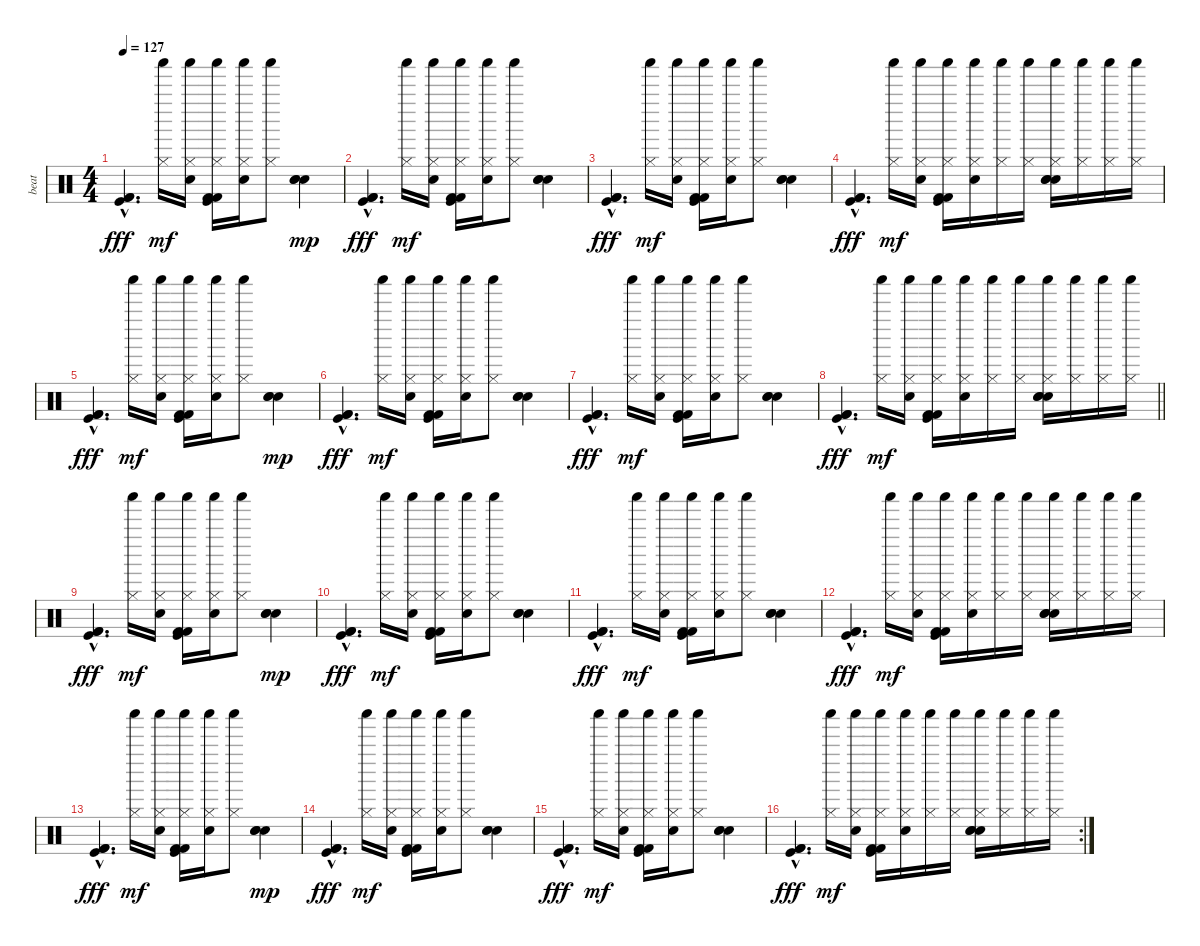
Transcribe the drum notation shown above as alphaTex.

\track ("beat" "beat") {instrument percussion}
\staff {score}
\articulation defaults
\ts (4 4)
\tempo 127
\clef neutral
\ks c
("Kick (hit)"{hac} "Kick (hit) 2"{hac} "Kick (hit) 2"{hac}).4{d dy fff} ("Shaker (hit)" "Hi-Hat (closed)").16{dy mf} ("Electric Snare (hit)" "Shaker (hit)" "Hi-Hat (closed)").16 ("Kick (hit)" "Kick (hit) 2" "Kick (hit) 2" "Shaker (hit)" "Hi-Hat (closed)").16 ("Electric Snare (hit)" "Shaker (hit)" "Hi-Hat (closed)").16 ("Shaker (hit)" "Hi-Hat (closed)").8 ("Snare (hit) 2" "Electric Snare (hit)" "Electric Snare (hit)").4{dy mp} |
("Kick (hit)"{hac} "Kick (hit) 2"{hac} "Kick (hit) 2"{hac}).4{d dy fff} ("Shaker (hit)" "Hi-Hat (closed)").16{dy mf} ("Electric Snare (hit)" "Shaker (hit)" "Hi-Hat (closed)").16 ("Kick (hit)" "Kick (hit) 2" "Kick (hit) 2" "Shaker (hit)" "Hi-Hat (closed)").16 ("Electric Snare (hit)" "Shaker (hit)" "Hi-Hat (closed)").16 ("Shaker (hit)" "Hi-Hat (closed)").8 ("Snare (hit) 2" "Electric Snare (hit)" "Electric Snare (hit)").4 |
("Kick (hit)"{hac} "Kick (hit) 2"{hac} "Kick (hit) 2"{hac}).4{d dy fff} ("Shaker (hit)" "Hi-Hat (closed)").16{dy mf} ("Electric Snare (hit)" "Shaker (hit)" "Hi-Hat (closed)").16 ("Kick (hit)" "Kick (hit) 2" "Kick (hit) 2" "Shaker (hit)" "Hi-Hat (closed)").16 ("Electric Snare (hit)" "Shaker (hit)" "Hi-Hat (closed)").16 ("Shaker (hit)" "Hi-Hat (closed)").8 ("Snare (hit) 2" "Electric Snare (hit)" "Electric Snare (hit)").4 |
("Kick (hit)"{hac} "Kick (hit) 2"{hac} "Kick (hit) 2"{hac}).4{d dy fff} ("Shaker (hit)" "Hi-Hat (closed)").16{dy mf} ("Electric Snare (hit)" "Shaker (hit)" "Hi-Hat (closed)").16 ("Kick (hit)" "Kick (hit) 2" "Kick (hit) 2" "Shaker (hit)" "Hi-Hat (closed)").16 ("Electric Snare (hit)" "Shaker (hit)" "Hi-Hat (closed)").16 ("Shaker (hit)" "Hi-Hat (closed)").16 ("Shaker (hit)" "Hi-Hat (closed)").16 ("Snare (hit) 2" "Electric Snare (hit)" "Electric Snare (hit)" "Shaker (hit)" "Hi-Hat (closed)").16 ("Shaker (hit)" "Hi-Hat (closed)").16 ("Shaker (hit)" "Hi-Hat (closed)").16 ("Shaker (hit)" "Hi-Hat (closed)").16 |
("Kick (hit)"{hac} "Kick (hit) 2"{hac} "Kick (hit) 2"{hac}).4{d dy fff} ("Shaker (hit)" "Hi-Hat (closed)").16{dy mf} ("Electric Snare (hit)" "Shaker (hit)" "Hi-Hat (closed)").16 ("Kick (hit)" "Kick (hit) 2" "Kick (hit) 2" "Shaker (hit)" "Hi-Hat (closed)").16 ("Electric Snare (hit)" "Shaker (hit)" "Hi-Hat (closed)").16 ("Shaker (hit)" "Hi-Hat (closed)").8 ("Snare (hit) 2" "Electric Snare (hit)" "Electric Snare (hit)").4{dy mp} |
("Kick (hit)"{hac} "Kick (hit) 2"{hac} "Kick (hit) 2"{hac}).4{d dy fff} ("Shaker (hit)" "Hi-Hat (closed)").16{dy mf} ("Electric Snare (hit)" "Shaker (hit)" "Hi-Hat (closed)").16 ("Kick (hit)" "Kick (hit) 2" "Kick (hit) 2" "Shaker (hit)" "Hi-Hat (closed)").16 ("Electric Snare (hit)" "Shaker (hit)" "Hi-Hat (closed)").16 ("Shaker (hit)" "Hi-Hat (closed)").8 ("Snare (hit) 2" "Electric Snare (hit)" "Electric Snare (hit)").4 |
("Kick (hit)"{hac} "Kick (hit) 2"{hac} "Kick (hit) 2"{hac}).4{d dy fff} ("Shaker (hit)" "Hi-Hat (closed)").16{dy mf} ("Electric Snare (hit)" "Shaker (hit)" "Hi-Hat (closed)").16 ("Kick (hit)" "Kick (hit) 2" "Kick (hit) 2" "Shaker (hit)" "Hi-Hat (closed)").16 ("Electric Snare (hit)" "Shaker (hit)" "Hi-Hat (closed)").16 ("Shaker (hit)" "Hi-Hat (closed)").8 ("Snare (hit) 2" "Electric Snare (hit)" "Electric Snare (hit)").4 |
\barLineRight lightlight
("Kick (hit)"{hac} "Kick (hit) 2"{hac} "Kick (hit) 2"{hac}).4{d dy fff} ("Shaker (hit)" "Hi-Hat (closed)").16{dy mf} ("Electric Snare (hit)" "Shaker (hit)" "Hi-Hat (closed)").16 ("Kick (hit)" "Kick (hit) 2" "Kick (hit) 2" "Shaker (hit)" "Hi-Hat (closed)").16 ("Electric Snare (hit)" "Shaker (hit)" "Hi-Hat (closed)").16 ("Shaker (hit)" "Hi-Hat (closed)").16 ("Shaker (hit)" "Hi-Hat (closed)").16 ("Snare (hit) 2" "Electric Snare (hit)" "Electric Snare (hit)" "Shaker (hit)" "Hi-Hat (closed)").16 ("Shaker (hit)" "Hi-Hat (closed)").16 ("Shaker (hit)" "Hi-Hat (closed)").16 ("Shaker (hit)" "Hi-Hat (closed)").16 |
("Kick (hit)"{hac} "Kick (hit) 2"{hac} "Kick (hit) 2"{hac}).4{d dy fff} ("Shaker (hit)" "Hi-Hat (closed)").16{dy mf} ("Electric Snare (hit)" "Shaker (hit)" "Hi-Hat (closed)").16 ("Kick (hit)" "Kick (hit) 2" "Kick (hit) 2" "Shaker (hit)" "Hi-Hat (closed)").16 ("Electric Snare (hit)" "Shaker (hit)" "Hi-Hat (closed)").16 ("Shaker (hit)" "Hi-Hat (closed)").8 ("Snare (hit) 2" "Electric Snare (hit)" "Electric Snare (hit)").4{dy mp} |
("Kick (hit)"{hac} "Kick (hit) 2"{hac} "Kick (hit) 2"{hac}).4{d dy fff} ("Shaker (hit)" "Hi-Hat (closed)").16{dy mf} ("Electric Snare (hit)" "Shaker (hit)" "Hi-Hat (closed)").16 ("Kick (hit)" "Kick (hit) 2" "Kick (hit) 2" "Shaker (hit)" "Hi-Hat (closed)").16 ("Electric Snare (hit)" "Shaker (hit)" "Hi-Hat (closed)").16 ("Shaker (hit)" "Hi-Hat (closed)").8 ("Snare (hit) 2" "Electric Snare (hit)" "Electric Snare (hit)").4 |
("Kick (hit)"{hac} "Kick (hit) 2"{hac} "Kick (hit) 2"{hac}).4{d dy fff} ("Shaker (hit)" "Hi-Hat (closed)").16{dy mf} ("Electric Snare (hit)" "Shaker (hit)" "Hi-Hat (closed)").16 ("Kick (hit)" "Kick (hit) 2" "Kick (hit) 2" "Shaker (hit)" "Hi-Hat (closed)").16 ("Electric Snare (hit)" "Shaker (hit)" "Hi-Hat (closed)").16 ("Shaker (hit)" "Hi-Hat (closed)").8 ("Snare (hit) 2" "Electric Snare (hit)" "Electric Snare (hit)").4 |
("Kick (hit)"{hac} "Kick (hit) 2"{hac} "Kick (hit) 2"{hac}).4{d dy fff} ("Shaker (hit)" "Hi-Hat (closed)").16{dy mf} ("Electric Snare (hit)" "Shaker (hit)" "Hi-Hat (closed)").16 ("Kick (hit)" "Kick (hit) 2" "Kick (hit) 2" "Shaker (hit)" "Hi-Hat (closed)").16 ("Electric Snare (hit)" "Shaker (hit)" "Hi-Hat (closed)").16 ("Shaker (hit)" "Hi-Hat (closed)").16 ("Shaker (hit)" "Hi-Hat (closed)").16 ("Snare (hit) 2" "Electric Snare (hit)" "Electric Snare (hit)" "Shaker (hit)" "Hi-Hat (closed)").16 ("Shaker (hit)" "Hi-Hat (closed)").16 ("Shaker (hit)" "Hi-Hat (closed)").16 ("Shaker (hit)" "Hi-Hat (closed)").16 |
("Kick (hit)"{hac} "Kick (hit) 2"{hac} "Kick (hit) 2"{hac}).4{d dy fff} ("Shaker (hit)" "Hi-Hat (closed)").16{dy mf} ("Electric Snare (hit)" "Shaker (hit)" "Hi-Hat (closed)").16 ("Kick (hit)" "Kick (hit) 2" "Kick (hit) 2" "Shaker (hit)" "Hi-Hat (closed)").16 ("Electric Snare (hit)" "Shaker (hit)" "Hi-Hat (closed)").16 ("Shaker (hit)" "Hi-Hat (closed)").8 ("Snare (hit) 2" "Electric Snare (hit)" "Electric Snare (hit)").4{dy mp} |
("Kick (hit)"{hac} "Kick (hit) 2"{hac} "Kick (hit) 2"{hac}).4{d dy fff} ("Shaker (hit)" "Hi-Hat (closed)").16{dy mf} ("Electric Snare (hit)" "Shaker (hit)" "Hi-Hat (closed)").16 ("Kick (hit)" "Kick (hit) 2" "Kick (hit) 2" "Shaker (hit)" "Hi-Hat (closed)").16 ("Electric Snare (hit)" "Shaker (hit)" "Hi-Hat (closed)").16 ("Shaker (hit)" "Hi-Hat (closed)").8 ("Snare (hit) 2" "Electric Snare (hit)" "Electric Snare (hit)").4 |
("Kick (hit)"{hac} "Kick (hit) 2"{hac} "Kick (hit) 2"{hac}).4{d dy fff} ("Shaker (hit)" "Hi-Hat (closed)").16{dy mf} ("Electric Snare (hit)" "Shaker (hit)" "Hi-Hat (closed)").16 ("Kick (hit)" "Kick (hit) 2" "Kick (hit) 2" "Shaker (hit)" "Hi-Hat (closed)").16 ("Electric Snare (hit)" "Shaker (hit)" "Hi-Hat (closed)").16 ("Shaker (hit)" "Hi-Hat (closed)").8 ("Snare (hit) 2" "Electric Snare (hit)" "Electric Snare (hit)").4 |
\rc 2
("Kick (hit)"{hac} "Kick (hit) 2"{hac} "Kick (hit) 2"{hac}).4{d dy fff} ("Shaker (hit)" "Hi-Hat (closed)").16{dy mf} ("Electric Snare (hit)" "Shaker (hit)" "Hi-Hat (closed)").16 ("Kick (hit)" "Kick (hit) 2" "Kick (hit) 2" "Shaker (hit)" "Hi-Hat (closed)").16 ("Electric Snare (hit)" "Shaker (hit)" "Hi-Hat (closed)").16 ("Shaker (hit)" "Hi-Hat (closed)").16 ("Shaker (hit)" "Hi-Hat (closed)").16 ("Snare (hit) 2" "Electric Snare (hit)" "Electric Snare (hit)" "Shaker (hit)" "Hi-Hat (closed)").16 ("Shaker (hit)" "Hi-Hat (closed)").16 ("Shaker (hit)" "Hi-Hat (closed)").16 ("Shaker (hit)" "Hi-Hat (closed)").16
